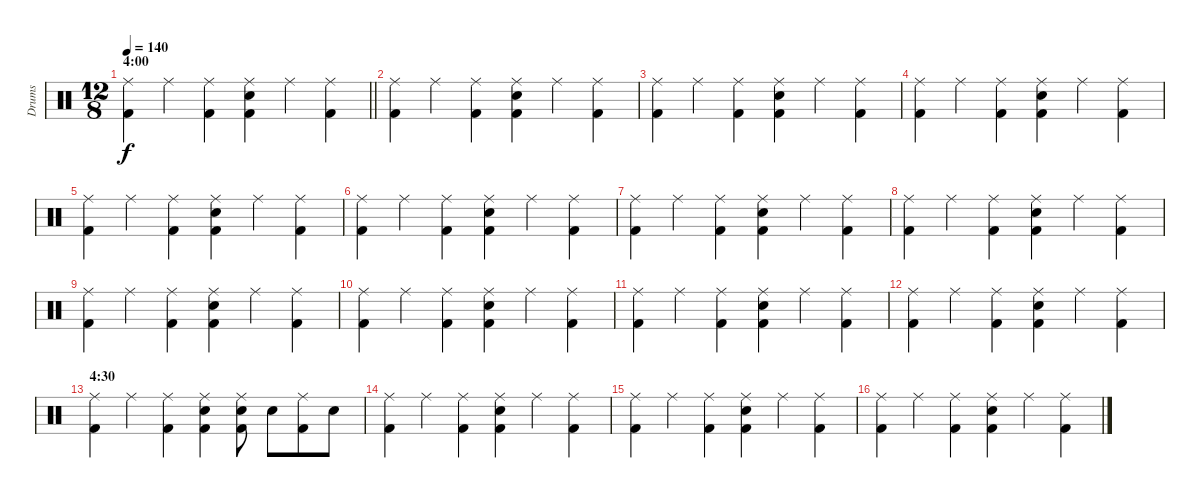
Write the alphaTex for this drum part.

\track ("Drums" "Drums") {instrument percussion}
\staff {score}
\articulation defaults
\ts (12 8)
\section ("" "4:00")
\tempo 140
\clef neutral
\barLineRight lightlight
\ks c
("Ride (middle)" "Kick (hit) 2").4{dy f} "Ride (middle)".4 ("Ride (middle)" "Kick (hit) 2").4 ("Ride (middle)" "Snare (hit) 2" "Kick (hit) 2").4 "Ride (middle)".4 ("Ride (middle)" "Kick (hit) 2").4 |
("Ride (middle)" "Kick (hit) 2").4 "Ride (middle)".4 ("Ride (middle)" "Kick (hit) 2").4 ("Ride (middle)" "Snare (hit) 2" "Kick (hit) 2").4 "Ride (middle)".4 ("Ride (middle)" "Kick (hit) 2").4 |
("Ride (middle)" "Kick (hit) 2").4 "Ride (middle)".4 ("Ride (middle)" "Kick (hit) 2").4 ("Ride (middle)" "Snare (hit) 2" "Kick (hit) 2").4 "Ride (middle)".4 ("Ride (middle)" "Kick (hit) 2").4 |
("Ride (middle)" "Kick (hit) 2").4 "Ride (middle)".4 ("Ride (middle)" "Kick (hit) 2").4 ("Ride (middle)" "Snare (hit) 2" "Kick (hit) 2").4 "Ride (middle)".4 ("Ride (middle)" "Kick (hit) 2").4 |
("Ride (middle)" "Kick (hit) 2").4 "Ride (middle)".4 ("Ride (middle)" "Kick (hit) 2").4 ("Ride (middle)" "Snare (hit) 2" "Kick (hit) 2").4 "Ride (middle)".4 ("Ride (middle)" "Kick (hit) 2").4 |
("Ride (middle)" "Kick (hit) 2").4 "Ride (middle)".4 ("Ride (middle)" "Kick (hit) 2").4 ("Ride (middle)" "Snare (hit) 2" "Kick (hit) 2").4 "Ride (middle)".4 ("Ride (middle)" "Kick (hit) 2").4 |
("Ride (middle)" "Kick (hit) 2").4 "Ride (middle)".4 ("Ride (middle)" "Kick (hit) 2").4 ("Ride (middle)" "Snare (hit) 2" "Kick (hit) 2").4 "Ride (middle)".4 ("Ride (middle)" "Kick (hit) 2").4 |
("Ride (middle)" "Kick (hit) 2").4 "Ride (middle)".4 ("Ride (middle)" "Kick (hit) 2").4 ("Ride (middle)" "Snare (hit) 2" "Kick (hit) 2").4 "Ride (middle)".4 ("Ride (middle)" "Kick (hit) 2").4 |
("Ride (middle)" "Kick (hit) 2").4 "Ride (middle)".4 ("Ride (middle)" "Kick (hit) 2").4 ("Ride (middle)" "Snare (hit) 2" "Kick (hit) 2").4 "Ride (middle)".4 ("Ride (middle)" "Kick (hit) 2").4 |
("Ride (middle)" "Kick (hit) 2").4 "Ride (middle)".4 ("Ride (middle)" "Kick (hit) 2").4 ("Ride (middle)" "Snare (hit) 2" "Kick (hit) 2").4 "Ride (middle)".4 ("Ride (middle)" "Kick (hit) 2").4 |
("Ride (middle)" "Kick (hit) 2").4 "Ride (middle)".4 ("Ride (middle)" "Kick (hit) 2").4 ("Ride (middle)" "Snare (hit) 2" "Kick (hit) 2").4 "Ride (middle)".4 ("Ride (middle)" "Kick (hit) 2").4 |
("Ride (middle)" "Kick (hit) 2").4 "Ride (middle)".4 ("Ride (middle)" "Kick (hit) 2").4 ("Ride (middle)" "Snare (hit) 2" "Kick (hit) 2").4 "Ride (middle)".4 ("Ride (middle)" "Kick (hit) 2").4 |
\section ("" "4:30")
("Ride (middle)" "Kick (hit) 2").4 "Ride (middle)".4 ("Ride (middle)" "Kick (hit) 2").4 ("Ride (middle)" "Snare (hit) 2" "Kick (hit) 2").4 ("Ride (middle)" "Snare (hit) 2" "Kick (hit) 2").8 "Snare (hit) 2".8 ("Ride (middle)" "Kick (hit) 2").8 "Snare (hit) 2".8 |
("Ride (middle)" "Kick (hit) 2").4 "Ride (middle)".4 ("Ride (middle)" "Kick (hit) 2").4 ("Ride (middle)" "Snare (hit) 2" "Kick (hit) 2").4 "Ride (middle)".4 ("Ride (middle)" "Kick (hit) 2").4 |
("Ride (middle)" "Kick (hit) 2").4 "Ride (middle)".4 ("Ride (middle)" "Kick (hit) 2").4 ("Ride (middle)" "Snare (hit) 2" "Kick (hit) 2").4 "Ride (middle)".4 ("Ride (middle)" "Kick (hit) 2").4 |
("Ride (middle)" "Kick (hit) 2").4 "Ride (middle)".4 ("Ride (middle)" "Kick (hit) 2").4 ("Ride (middle)" "Snare (hit) 2" "Kick (hit) 2").4 "Ride (middle)".4 ("Ride (middle)" "Kick (hit) 2").4
